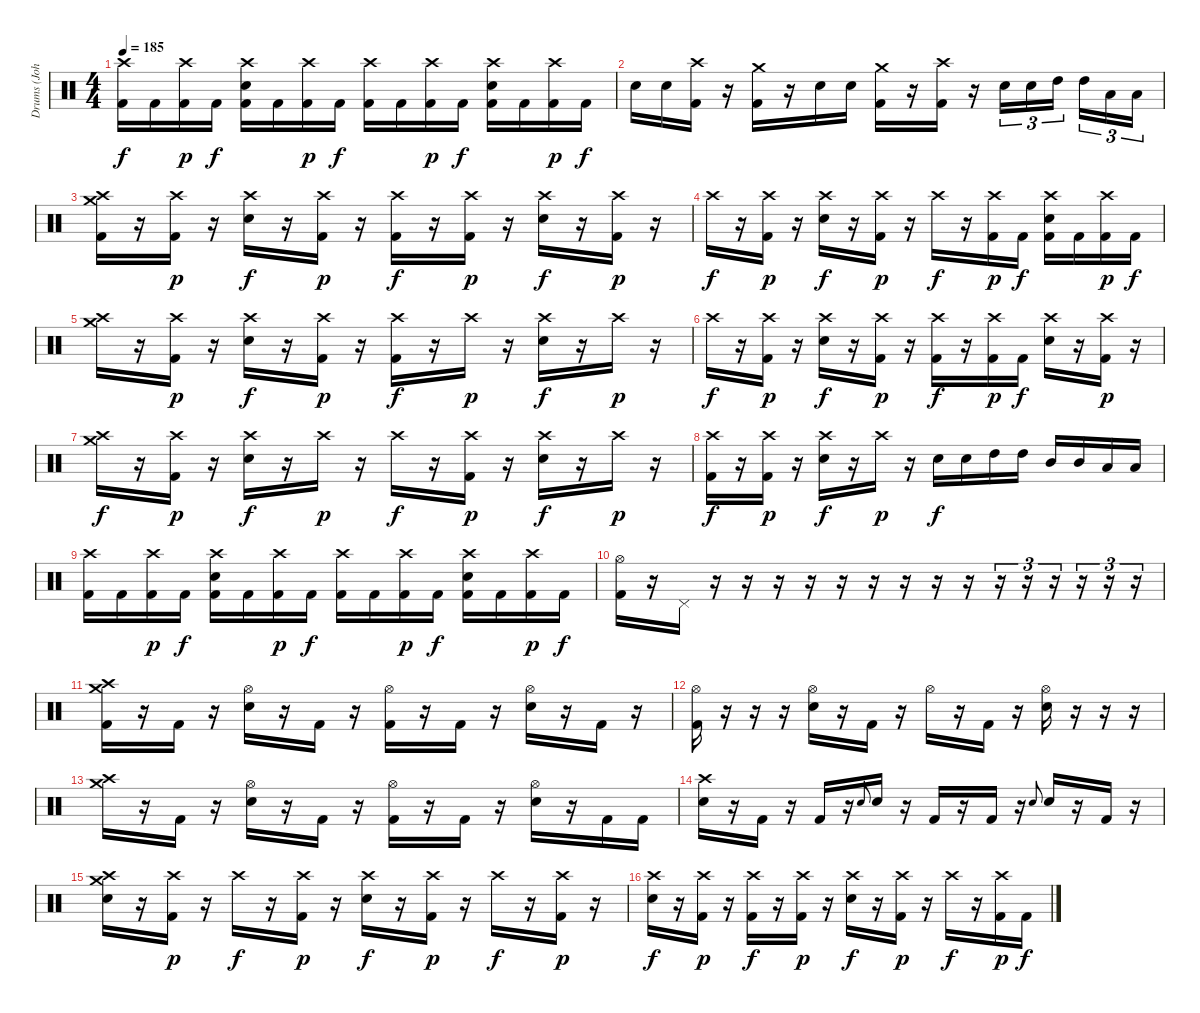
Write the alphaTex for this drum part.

\track ("Drums (Johno)" "Drums (Joh") {instrument percussion}
\staff {score}
\articulation defaults
\ts (4 4)
\tempo 185
\clef neutral
\ks c
("Crash high (hit)" "Kick (hit) 2").16{dy f} "Kick (hit) 2".16 ("Crash high (hit)" "Kick (hit) 2").16{dy p} "Kick (hit) 2".16{dy f} ("Crash high (hit)" "Electric Snare (hit)" "Kick (hit) 2").16 "Kick (hit) 2".16 ("Crash high (hit)" "Kick (hit) 2").16{dy p} "Kick (hit) 2".16{dy f} ("Crash high (hit)" "Kick (hit) 2").16 "Kick (hit) 2".16 ("Crash high (hit)" "Kick (hit) 2").16{dy p} "Kick (hit) 2".16{dy f} ("Crash high (hit)" "Electric Snare (hit)" "Kick (hit) 2").16 "Kick (hit) 2".16 ("Crash high (hit)" "Kick (hit) 2").16{dy p} "Kick (hit) 2".16{dy f} |
"Electric Snare (hit)".16 "Electric Snare (hit)".16 ("Crash high (hit)" "Kick (hit) 2").16 r.16 ("Crash medium (hit)" "Kick (hit) 2").16 r.16 "Electric Snare (hit)".16 "Electric Snare (hit)".16 ("Crash medium (hit)" "Kick (hit) 2").16 r.16 ("Crash high (hit)" "Kick (hit) 2").16 r.16 "Electric Snare (hit)".16{tu (3 2)} "Electric Snare (hit)".16{tu (3 2)} "High Tom (hit)".16{tu (3 2) beam splitsecondary} "High Tom (hit)".16{tu (3 2)} "Low Floor Tom (hit)".16{tu (3 2)} "Low Floor Tom (hit)".16{tu (3 2)} |
("Crash medium (hit)" "Crash high (hit)" "Kick (hit) 2").16 r.16 ("Crash high (hit)" "Kick (hit) 2").16{dy p} r.16 ("Crash high (hit)" "Electric Snare (hit)").16{dy f} r.16 ("Crash high (hit)" "Kick (hit) 2").16{dy p} r.16 ("Crash high (hit)" "Kick (hit) 2").16{dy f} r.16 ("Crash high (hit)" "Kick (hit) 2").16{dy p} r.16 ("Crash high (hit)" "Electric Snare (hit)").16{dy f} r.16 ("Crash high (hit)" "Kick (hit) 2").16{dy p} r.16 |
"Crash high (hit)".16{dy f} r.16 ("Crash high (hit)" "Kick (hit) 2").16{dy p} r.16 ("Crash high (hit)" "Electric Snare (hit)").16{dy f} r.16 ("Crash high (hit)" "Kick (hit) 2").16{dy p} r.16 "Crash high (hit)".16{dy f} r.16 ("Crash high (hit)" "Kick (hit) 2").16{dy p} "Kick (hit) 2".16{dy f} ("Crash high (hit)" "Electric Snare (hit)" "Kick (hit) 2").16 "Kick (hit) 2".16 ("Crash high (hit)" "Kick (hit) 2").16{dy p} "Kick (hit) 2".16{dy f} |
("Crash medium (hit)" "Crash high (hit)").16 r.16 ("Crash high (hit)" "Kick (hit) 2").16{dy p} r.16 ("Crash high (hit)" "Electric Snare (hit)").16{dy f} r.16 ("Crash high (hit)" "Kick (hit) 2").16{dy p} r.16 ("Crash high (hit)" "Kick (hit) 2").16{dy f} r.16 "Crash high (hit)".16{dy p} r.16 ("Crash high (hit)" "Electric Snare (hit)").16{dy f} r.16 "Crash high (hit)".16{dy p} r.16 |
"Crash high (hit)".16{dy f} r.16 ("Crash high (hit)" "Kick (hit) 2").16{dy p} r.16 ("Crash high (hit)" "Electric Snare (hit)").16{dy f} r.16 ("Crash high (hit)" "Kick (hit) 2").16{dy p} r.16 ("Crash high (hit)" "Kick (hit) 2").16{dy f} r.16 ("Crash high (hit)" "Kick (hit) 2").16{dy p} "Kick (hit) 2".16{dy f} ("Crash high (hit)" "Electric Snare (hit)").16 r.16 ("Crash high (hit)" "Kick (hit) 2").16{dy p} r.16 |
("Crash medium (hit)" "Crash high (hit)").16{dy f} r.16 ("Crash high (hit)" "Kick (hit) 2").16{dy p} r.16 ("Crash high (hit)" "Electric Snare (hit)").16{dy f} r.16 "Crash high (hit)".16{dy p} r.16 "Crash high (hit)".16{dy f} r.16 ("Crash high (hit)" "Kick (hit) 2").16{dy p} r.16 ("Crash high (hit)" "Electric Snare (hit)").16{dy f} r.16 "Crash high (hit)".16{dy p} r.16 |
("Crash high (hit)" "Kick (hit) 2").16{dy f} r.16 ("Crash high (hit)" "Kick (hit) 2").16{dy p} r.16 ("Crash high (hit)" "Electric Snare (hit)").16{dy f} r.16 "Crash high (hit)".16{dy p} r.16 "Electric Snare (hit)".16{dy f} "Electric Snare (hit)".16 "High Tom (hit)".16 "High Tom (hit)".16 "Mid Tom (hit)".16 "Mid Tom (hit)".16 "Low Floor Tom (hit)".16 "Low Floor Tom (hit)".16 |
("Crash high (hit)" "Kick (hit) 2").16 "Kick (hit) 2".16 ("Crash high (hit)" "Kick (hit) 2").16{dy p} "Kick (hit) 2".16{dy f} ("Crash high (hit)" "Electric Snare (hit)" "Kick (hit) 2").16 "Kick (hit) 2".16 ("Crash high (hit)" "Kick (hit) 2").16{dy p} "Kick (hit) 2".16{dy f} ("Crash high (hit)" "Kick (hit) 2").16 "Kick (hit) 2".16 ("Crash high (hit)" "Kick (hit) 2").16{dy p} "Kick (hit) 2".16{dy f} ("Crash high (hit)" "Electric Snare (hit)" "Kick (hit) 2").16 "Kick (hit) 2".16 ("Crash high (hit)" "Kick (hit) 2").16{dy p} "Kick (hit) 2".16{dy f} |
("Hi-Hat (open)" "Kick (hit) 2").16 r.16 "Pedal Hi-Hat (hit)".16 r.16 r.16 r.16 r.16 r.16 r.16 r.16 r.16 r.16 r.16{tu (3 2)} r.16{tu (3 2)} r.16{tu (3 2)} r.16{tu (3 2)} r.16{tu (3 2)} r.16{tu (3 2)} |
("Crash medium (hit)" "Crash high (hit)" "Kick (hit) 2").16 r.16 "Kick (hit) 2".16 r.16 ("Hi-Hat (open)" "Electric Snare (hit)").16 r.16 "Kick (hit) 2".16 r.16 ("Hi-Hat (open)" "Kick (hit) 2").16 r.16 "Kick (hit) 2".16 r.16 ("Hi-Hat (open)" "Electric Snare (hit)").16 r.16 "Kick (hit) 2".16 r.16 |
("Hi-Hat (open)" "Kick (hit) 2").16 r.16 r.16 r.16 ("Hi-Hat (open)" "Electric Snare (hit)").16 r.16 "Kick (hit) 2".16 r.16 "Hi-Hat (open)".16 r.16 "Kick (hit) 2".16 r.16 ("Hi-Hat (open)" "Electric Snare (hit)").16 r.16 r.16 r.16 |
("Crash medium (hit)" "Crash high (hit)").16 r.16 "Kick (hit) 2".16 r.16 ("Hi-Hat (open)" "Electric Snare (hit)").16 r.16 "Kick (hit) 2".16 r.16 ("Hi-Hat (open)" "Kick (hit) 2").16 r.16 "Kick (hit) 2".16 r.16 ("Hi-Hat (open)" "Electric Snare (hit)").16 r.16 "Kick (hit) 2".16 "Kick (hit) 2".16 |
("Crash high (hit)" "Electric Snare (hit)").16 r.16 "Kick (hit) 2".16 r.16 "Kick (hit) 2".16 r.16 "Electric Snare (hit)".8{gr onbeat} "Electric Snare (hit)".16 r.16 "Kick (hit) 2".16 r.16 "Kick (hit) 2".16 r.16 "Electric Snare (hit)".8{gr onbeat} "Electric Snare (hit)".16 r.16 "Kick (hit) 2".16 r.16 |
("Crash medium (hit)" "Crash high (hit)" "Electric Snare (hit)").16 r.16 ("Crash high (hit)" "Kick (hit) 2").16{dy p} r.16 "Crash high (hit)".16{dy f} r.16 ("Crash high (hit)" "Kick (hit) 2").16{dy p} r.16 ("Crash high (hit)" "Electric Snare (hit)").16{dy f} r.16 ("Crash high (hit)" "Kick (hit) 2").16{dy p} r.16 "Crash high (hit)".16{dy f} r.16 ("Crash high (hit)" "Kick (hit) 2").16{dy p} r.16 |
("Crash high (hit)" "Electric Snare (hit)").16{dy f} r.16 ("Crash high (hit)" "Kick (hit) 2").16{dy p} r.16 ("Crash high (hit)" "Kick (hit) 2").16{dy f} r.16 ("Crash high (hit)" "Kick (hit) 2").16{dy p} r.16 ("Crash high (hit)" "Electric Snare (hit)").16{dy f} r.16 ("Crash high (hit)" "Kick (hit) 2").16{dy p} r.16 "Crash high (hit)".16{dy f} r.16 ("Crash high (hit)" "Kick (hit) 2").16{dy p} "Kick (hit) 2".16{dy f}
